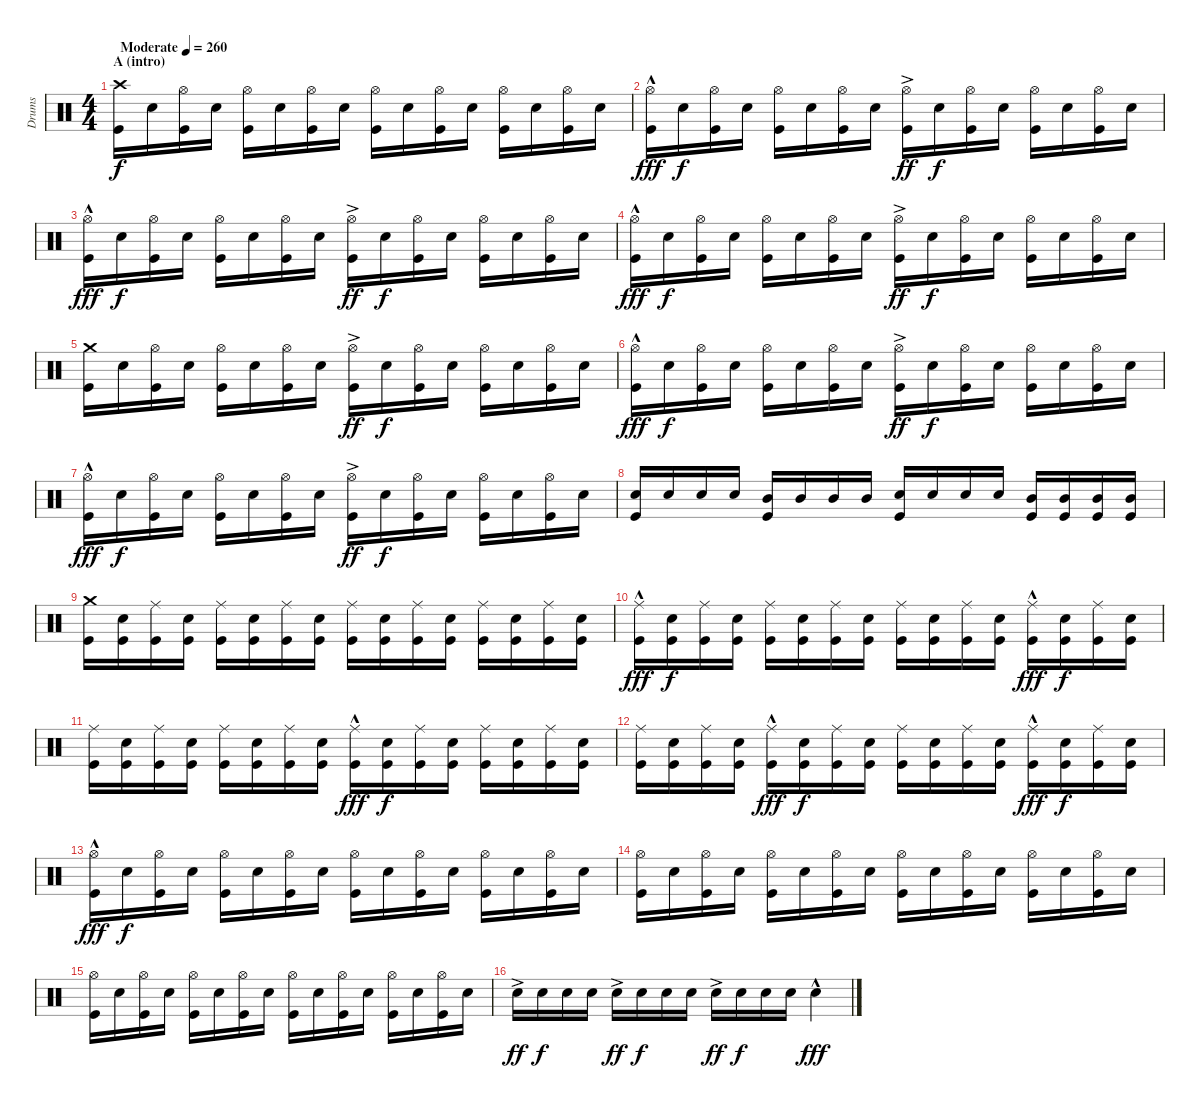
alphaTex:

\track ("Drums" "Drums") {instrument percussion}
\staff {score}
\articulation defaults
\ts (4 4)
\section ("" "A (intro)")
\tempo (260 "Moderate")
\clef neutral
\ks c
("Crash high (hit)" "Kick (hit)").16{dy f} "Electric Snare (hit)".16 ("Hi-Hat (open)" "Kick (hit)").16 "Electric Snare (hit)".16 ("Hi-Hat (open)" "Kick (hit)").16 "Electric Snare (hit)".16 ("Hi-Hat (open)" "Kick (hit)").16 "Electric Snare (hit)".16 ("Hi-Hat (open)" "Kick (hit)").16 "Electric Snare (hit)".16 ("Hi-Hat (open)" "Kick (hit)").16 "Electric Snare (hit)".16 ("Hi-Hat (open)" "Kick (hit)").16 "Electric Snare (hit)".16 ("Hi-Hat (open)" "Kick (hit)").16 "Electric Snare (hit)".16 |
("Hi-Hat (open)"{hac} "Kick (hit)").16{dy fff} "Electric Snare (hit)".16{dy f} ("Hi-Hat (open)" "Kick (hit)").16 "Electric Snare (hit)".16 ("Hi-Hat (open)" "Kick (hit)").16 "Electric Snare (hit)".16 ("Hi-Hat (open)" "Kick (hit)").16 "Electric Snare (hit)".16 ("Hi-Hat (open)"{ac} "Kick (hit)").16{dy ff} "Electric Snare (hit)".16{dy f} ("Hi-Hat (open)" "Kick (hit)").16 "Electric Snare (hit)".16 ("Hi-Hat (open)" "Kick (hit)").16 "Electric Snare (hit)".16 ("Hi-Hat (open)" "Kick (hit)").16 "Electric Snare (hit)".16 |
("Hi-Hat (open)"{hac} "Kick (hit)").16{dy fff} "Electric Snare (hit)".16{dy f} ("Hi-Hat (open)" "Kick (hit)").16 "Electric Snare (hit)".16 ("Hi-Hat (open)" "Kick (hit)").16 "Electric Snare (hit)".16 ("Hi-Hat (open)" "Kick (hit)").16 "Electric Snare (hit)".16 ("Hi-Hat (open)"{ac} "Kick (hit)").16{dy ff} "Electric Snare (hit)".16{dy f} ("Hi-Hat (open)" "Kick (hit)").16 "Electric Snare (hit)".16 ("Hi-Hat (open)" "Kick (hit)").16 "Electric Snare (hit)".16 ("Hi-Hat (open)" "Kick (hit)").16 "Electric Snare (hit)".16 |
("Hi-Hat (open)"{hac} "Kick (hit)").16{dy fff} "Electric Snare (hit)".16{dy f} ("Hi-Hat (open)" "Kick (hit)").16 "Electric Snare (hit)".16 ("Hi-Hat (open)" "Kick (hit)").16 "Electric Snare (hit)".16 ("Hi-Hat (open)" "Kick (hit)").16 "Electric Snare (hit)".16 ("Hi-Hat (open)"{ac} "Kick (hit)").16{dy ff} "Electric Snare (hit)".16{dy f} ("Hi-Hat (open)" "Kick (hit)").16 "Electric Snare (hit)".16 ("Hi-Hat (open)" "Kick (hit)").16 "Electric Snare (hit)".16 ("Hi-Hat (open)" "Kick (hit)").16 "Electric Snare (hit)".16 |
("Crash medium (hit)" "Kick (hit)").16 "Electric Snare (hit)".16 ("Hi-Hat (open)" "Kick (hit)").16 "Electric Snare (hit)".16 ("Hi-Hat (open)" "Kick (hit)").16 "Electric Snare (hit)".16 ("Hi-Hat (open)" "Kick (hit)").16 "Electric Snare (hit)".16 ("Hi-Hat (open)"{ac} "Kick (hit)").16{dy ff} "Electric Snare (hit)".16{dy f} ("Hi-Hat (open)" "Kick (hit)").16 "Electric Snare (hit)".16 ("Hi-Hat (open)" "Kick (hit)").16 "Electric Snare (hit)".16 ("Hi-Hat (open)" "Kick (hit)").16 "Electric Snare (hit)".16 |
("Hi-Hat (open)"{hac} "Kick (hit)").16{dy fff} "Electric Snare (hit)".16{dy f} ("Hi-Hat (open)" "Kick (hit)").16 "Electric Snare (hit)".16 ("Hi-Hat (open)" "Kick (hit)").16 "Electric Snare (hit)".16 ("Hi-Hat (open)" "Kick (hit)").16 "Electric Snare (hit)".16 ("Hi-Hat (open)"{ac} "Kick (hit)").16{dy ff} "Electric Snare (hit)".16{dy f} ("Hi-Hat (open)" "Kick (hit)").16 "Electric Snare (hit)".16 ("Hi-Hat (open)" "Kick (hit)").16 "Electric Snare (hit)".16 ("Hi-Hat (open)" "Kick (hit)").16 "Electric Snare (hit)".16 |
("Hi-Hat (open)"{hac} "Kick (hit)").16{dy fff} "Electric Snare (hit)".16{dy f} ("Hi-Hat (open)" "Kick (hit)").16 "Electric Snare (hit)".16 ("Hi-Hat (open)" "Kick (hit)").16 "Electric Snare (hit)".16 ("Hi-Hat (open)" "Kick (hit)").16 "Electric Snare (hit)".16 ("Hi-Hat (open)"{ac} "Kick (hit)").16{dy ff} "Electric Snare (hit)".16{dy f} ("Hi-Hat (open)" "Kick (hit)").16 "Electric Snare (hit)".16 ("Hi-Hat (open)" "Kick (hit)").16 "Electric Snare (hit)".16 ("Hi-Hat (open)" "Kick (hit)").16 "Electric Snare (hit)".16 |
("Electric Snare (hit)" "Kick (hit)").16 "Electric Snare (hit)".16 "Electric Snare (hit)".16 "Electric Snare (hit)".16 ("Mid Tom (hit)" "Kick (hit)").16 "Mid Tom (hit)".16 "Mid Tom (hit)".16 "Mid Tom (hit)".16 ("Electric Snare (hit)" "Kick (hit)").16 "Electric Snare (hit)".16 "Electric Snare (hit)".16 "Electric Snare (hit)".16 ("Mid Tom (hit)" "Kick (hit)").16 ("Mid Tom (hit)" "Kick (hit)").16 ("Mid Tom (hit)" "Kick (hit)").16 ("Mid Tom (hit)" "Kick (hit)").16 |
("Crash medium (hit)" "Kick (hit)").16 ("Electric Snare (hit)" "Kick (hit)").16 ("Ride (middle)" "Kick (hit)").16 ("Electric Snare (hit)" "Kick (hit)").16 ("Ride (middle)" "Kick (hit)").16 ("Electric Snare (hit)" "Kick (hit)").16 ("Ride (middle)" "Kick (hit)").16 ("Electric Snare (hit)" "Kick (hit)").16 ("Ride (middle)" "Kick (hit)").16 ("Electric Snare (hit)" "Kick (hit)").16 ("Ride (middle)" "Kick (hit)").16 ("Electric Snare (hit)" "Kick (hit)").16 ("Ride (middle)" "Kick (hit)").16 ("Electric Snare (hit)" "Kick (hit)").16 ("Ride (middle)" "Kick (hit)").16 ("Electric Snare (hit)" "Kick (hit)").16 |
("Ride (middle)"{hac} "Kick (hit)").16{dy fff} ("Electric Snare (hit)" "Kick (hit)").16{dy f} ("Ride (middle)" "Kick (hit)").16 ("Electric Snare (hit)" "Kick (hit)").16 ("Ride (middle)" "Kick (hit)").16 ("Electric Snare (hit)" "Kick (hit)").16 ("Ride (middle)" "Kick (hit)").16 ("Electric Snare (hit)" "Kick (hit)").16 ("Ride (middle)" "Kick (hit)").16 ("Electric Snare (hit)" "Kick (hit)").16 ("Ride (middle)" "Kick (hit)").16 ("Electric Snare (hit)" "Kick (hit)").16 ("Ride (middle)"{hac} "Kick (hit)").16{dy fff} ("Electric Snare (hit)" "Kick (hit)").16{dy f} ("Ride (middle)" "Kick (hit)").16 ("Electric Snare (hit)" "Kick (hit)").16 |
("Ride (middle)" "Kick (hit)").16 ("Electric Snare (hit)" "Kick (hit)").16 ("Ride (middle)" "Kick (hit)").16 ("Electric Snare (hit)" "Kick (hit)").16 ("Ride (middle)" "Kick (hit)").16 ("Electric Snare (hit)" "Kick (hit)").16 ("Ride (middle)" "Kick (hit)").16 ("Electric Snare (hit)" "Kick (hit)").16 ("Ride (middle)"{hac} "Kick (hit)").16{dy fff} ("Electric Snare (hit)" "Kick (hit)").16{dy f} ("Ride (middle)" "Kick (hit)").16 ("Electric Snare (hit)" "Kick (hit)").16 ("Ride (middle)" "Kick (hit)").16 ("Electric Snare (hit)" "Kick (hit)").16 ("Ride (middle)" "Kick (hit)").16 ("Electric Snare (hit)" "Kick (hit)").16 |
("Ride (middle)" "Kick (hit)").16 ("Electric Snare (hit)" "Kick (hit)").16 ("Ride (middle)" "Kick (hit)").16 ("Electric Snare (hit)" "Kick (hit)").16 ("Ride (middle)"{hac} "Kick (hit)").16{dy fff} ("Electric Snare (hit)" "Kick (hit)").16{dy f} ("Ride (middle)" "Kick (hit)").16 ("Electric Snare (hit)" "Kick (hit)").16 ("Ride (middle)" "Kick (hit)").16 ("Electric Snare (hit)" "Kick (hit)").16 ("Ride (middle)" "Kick (hit)").16 ("Electric Snare (hit)" "Kick (hit)").16 ("Ride (middle)"{hac} "Kick (hit)").16{dy fff} ("Electric Snare (hit)" "Kick (hit)").16{dy f} ("Ride (middle)" "Kick (hit)").16 ("Electric Snare (hit)" "Kick (hit)").16 |
("Hi-Hat (open)"{hac} "Kick (hit)").16{dy fff} "Electric Snare (hit)".16{dy f} ("Hi-Hat (open)" "Kick (hit)").16 "Electric Snare (hit)".16 ("Hi-Hat (open)" "Kick (hit)").16 "Electric Snare (hit)".16 ("Hi-Hat (open)" "Kick (hit)").16 "Electric Snare (hit)".16 ("Hi-Hat (open)" "Kick (hit)").16 "Electric Snare (hit)".16 ("Hi-Hat (open)" "Kick (hit)").16 "Electric Snare (hit)".16 ("Hi-Hat (open)" "Kick (hit)").16 "Electric Snare (hit)".16 ("Hi-Hat (open)" "Kick (hit)").16 "Electric Snare (hit)".16 |
("Hi-Hat (open)" "Kick (hit)").16 "Electric Snare (hit)".16 ("Hi-Hat (open)" "Kick (hit)").16 "Electric Snare (hit)".16 ("Hi-Hat (open)" "Kick (hit)").16 "Electric Snare (hit)".16 ("Hi-Hat (open)" "Kick (hit)").16 "Electric Snare (hit)".16 ("Hi-Hat (open)" "Kick (hit)").16 "Electric Snare (hit)".16 ("Hi-Hat (open)" "Kick (hit)").16 "Electric Snare (hit)".16 ("Hi-Hat (open)" "Kick (hit)").16 "Electric Snare (hit)".16 ("Hi-Hat (open)" "Kick (hit)").16 "Electric Snare (hit)".16 |
("Hi-Hat (open)" "Kick (hit)").16 "Electric Snare (hit)".16 ("Hi-Hat (open)" "Kick (hit)").16 "Electric Snare (hit)".16 ("Hi-Hat (open)" "Kick (hit)").16 "Electric Snare (hit)".16 ("Hi-Hat (open)" "Kick (hit)").16 "Electric Snare (hit)".16 ("Hi-Hat (open)" "Kick (hit)").16 "Electric Snare (hit)".16 ("Hi-Hat (open)" "Kick (hit)").16 "Electric Snare (hit)".16 ("Hi-Hat (open)" "Kick (hit)").16 "Electric Snare (hit)".16 ("Hi-Hat (open)" "Kick (hit)").16 "Electric Snare (hit)".16 |
"Electric Snare (hit)"{ac}.16{dy ff} "Electric Snare (hit)".16{dy f} "Electric Snare (hit)".16 "Electric Snare (hit)".16 "Electric Snare (hit)"{ac}.16{dy ff} "Electric Snare (hit)".16{dy f} "Electric Snare (hit)".16 "Electric Snare (hit)".16 "Electric Snare (hit)"{ac}.16{dy ff} "Electric Snare (hit)".16{dy f} "Electric Snare (hit)".16 "Electric Snare (hit)".16 "Electric Snare (hit)"{hac}.4{dy fff}
